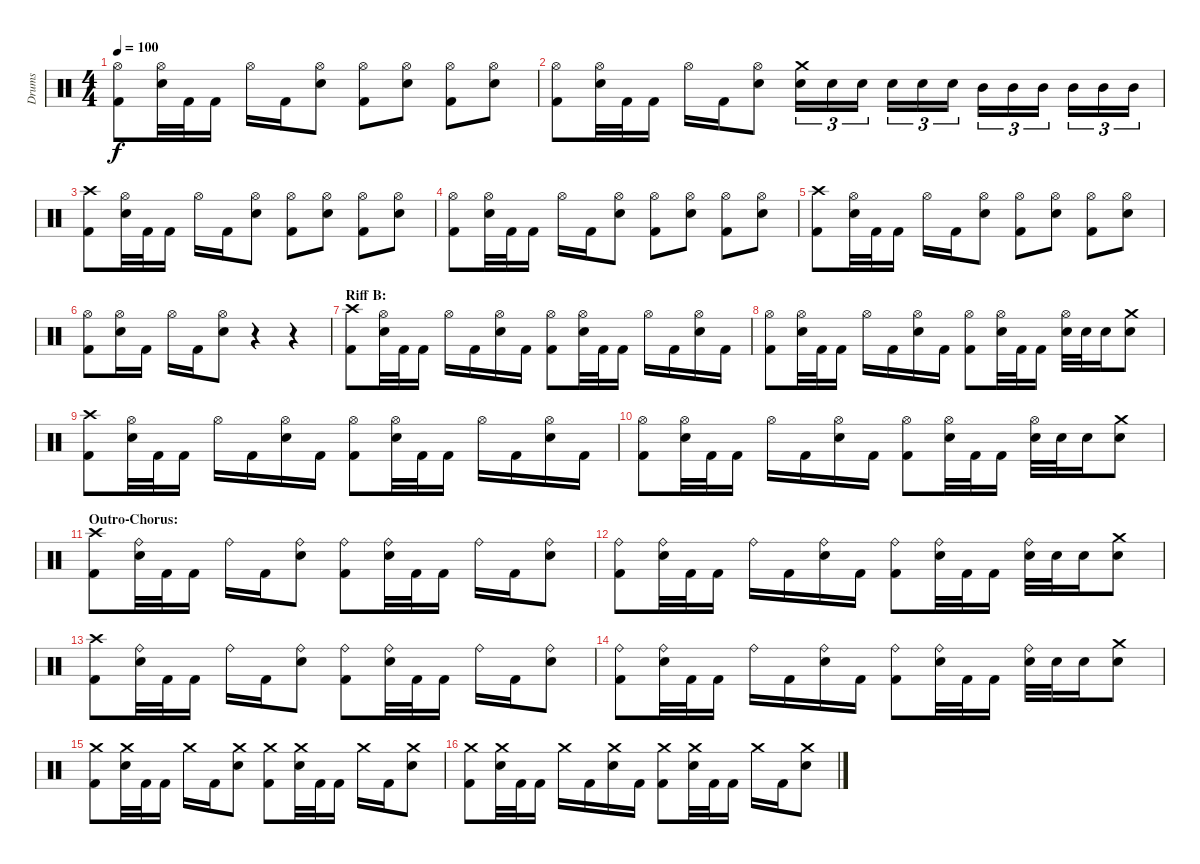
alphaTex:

\track ("Drums" "Drums") {instrument percussion}
\staff {score}
\articulation defaults
\ts (4 4)
\tempo 100
\clef neutral
\ks c
("Hi-Hat (open)" "Kick (hit) 2").8{dy f} ("Hi-Hat (open)" "Electric Snare (hit)").32 "Kick (hit) 2".32 "Kick (hit) 2".16 "Hi-Hat (open)".16 "Kick (hit) 2".16 ("Hi-Hat (open)" "Electric Snare (hit)").8 ("Hi-Hat (open)" "Kick (hit) 2").8 ("Hi-Hat (open)" "Electric Snare (hit)").8 ("Hi-Hat (open)" "Kick (hit) 2").8 ("Hi-Hat (open)" "Electric Snare (hit)").8 |
("Hi-Hat (open)" "Kick (hit) 2").8 ("Hi-Hat (open)" "Electric Snare (hit)").32 "Kick (hit) 2".32 "Kick (hit) 2".16 "Hi-Hat (open)".16 "Kick (hit) 2".16 ("Hi-Hat (open)" "Electric Snare (hit)").8 ("Crash medium (hit)" "Electric Snare (hit)").16{tu (3 2)} "Electric Snare (hit)".16{tu (3 2)} "Electric Snare (hit)".16{tu (3 2)} "Electric Snare (hit)".16{tu (3 2)} "Electric Snare (hit)".16{tu (3 2)} "Electric Snare (hit)".16{tu (3 2)} "Mid Tom (hit)".16{tu (3 2)} "Mid Tom (hit)".16{tu (3 2)} "Mid Tom (hit)".16{tu (3 2)} "Mid Tom (hit)".16{tu (3 2)} "Mid Tom (hit)".16{tu (3 2)} "Mid Tom (hit)".16{tu (3 2)} |
("Crash high (hit)" "Kick (hit) 2").8 ("Hi-Hat (open)" "Electric Snare (hit)").32 "Kick (hit) 2".32 "Kick (hit) 2".16 "Hi-Hat (open)".16 "Kick (hit) 2".16 ("Hi-Hat (open)" "Electric Snare (hit)").8 ("Hi-Hat (open)" "Kick (hit) 2").8 ("Hi-Hat (open)" "Electric Snare (hit)").8 ("Hi-Hat (open)" "Kick (hit) 2").8 ("Hi-Hat (open)" "Electric Snare (hit)").8 |
("Hi-Hat (open)" "Kick (hit) 2").8 ("Hi-Hat (open)" "Electric Snare (hit)").32 "Kick (hit) 2".32 "Kick (hit) 2".16 "Hi-Hat (open)".16 "Kick (hit) 2".16 ("Hi-Hat (open)" "Electric Snare (hit)").8 ("Hi-Hat (open)" "Kick (hit) 2").8 ("Hi-Hat (open)" "Electric Snare (hit)").8 ("Hi-Hat (open)" "Kick (hit) 2").8 ("Hi-Hat (open)" "Electric Snare (hit)").8 |
("Crash high (hit)" "Kick (hit) 2").8 ("Hi-Hat (open)" "Electric Snare (hit)").32 "Kick (hit) 2".32 "Kick (hit) 2".16 "Hi-Hat (open)".16 "Kick (hit) 2".16 ("Hi-Hat (open)" "Electric Snare (hit)").8 ("Hi-Hat (open)" "Kick (hit) 2").8 ("Hi-Hat (open)" "Electric Snare (hit)").8 ("Hi-Hat (open)" "Kick (hit) 2").8 ("Hi-Hat (open)" "Electric Snare (hit)").8 |
("Hi-Hat (open)" "Kick (hit) 2").8 ("Hi-Hat (open)" "Electric Snare (hit)").16 "Kick (hit) 2".16 "Hi-Hat (open)".16 "Kick (hit) 2".16 ("Hi-Hat (open)" "Electric Snare (hit)").8 r.4 r.4 |
\section ("" "Riff B:")
("Crash high (hit)" "Kick (hit) 2").8 ("Hi-Hat (open)" "Electric Snare (hit)").32 "Kick (hit) 2".32 "Kick (hit) 2".16 "Hi-Hat (open)".16 "Kick (hit) 2".16 ("Hi-Hat (open)" "Electric Snare (hit)").16 "Kick (hit) 2".16 ("Hi-Hat (open)" "Kick (hit) 2").8 ("Hi-Hat (open)" "Electric Snare (hit)").32 "Kick (hit) 2".32 "Kick (hit) 2".16 "Hi-Hat (open)".16 "Kick (hit) 2".16 ("Hi-Hat (open)" "Electric Snare (hit)").16 "Kick (hit) 2".16 |
("Hi-Hat (open)" "Kick (hit) 2").8 ("Hi-Hat (open)" "Electric Snare (hit)").32 "Kick (hit) 2".32 "Kick (hit) 2".16 "Hi-Hat (open)".16 "Kick (hit) 2".16 ("Hi-Hat (open)" "Electric Snare (hit)").16 "Kick (hit) 2".16 ("Hi-Hat (open)" "Kick (hit) 2").8 ("Hi-Hat (open)" "Electric Snare (hit)").32 "Kick (hit) 2".32 "Kick (hit) 2".16 ("Hi-Hat (open)" "Electric Snare (hit)").32 "Electric Snare (hit)".32 "Electric Snare (hit)".16 ("Crash medium (hit)" "Electric Snare (hit)").8 |
("Crash high (hit)" "Kick (hit) 2").8 ("Hi-Hat (open)" "Electric Snare (hit)").32 "Kick (hit) 2".32 "Kick (hit) 2".16 "Hi-Hat (open)".16 "Kick (hit) 2".16 ("Hi-Hat (open)" "Electric Snare (hit)").16 "Kick (hit) 2".16 ("Hi-Hat (open)" "Kick (hit) 2").8 ("Hi-Hat (open)" "Electric Snare (hit)").32 "Kick (hit) 2".32 "Kick (hit) 2".16 "Hi-Hat (open)".16 "Kick (hit) 2".16 ("Hi-Hat (open)" "Electric Snare (hit)").16 "Kick (hit) 2".16 |
("Hi-Hat (open)" "Kick (hit) 2").8 ("Hi-Hat (open)" "Electric Snare (hit)").32 "Kick (hit) 2".32 "Kick (hit) 2".16 "Hi-Hat (open)".16 "Kick (hit) 2".16 ("Hi-Hat (open)" "Electric Snare (hit)").16 "Kick (hit) 2".16 ("Hi-Hat (open)" "Kick (hit) 2").8 ("Hi-Hat (open)" "Electric Snare (hit)").32 "Kick (hit) 2".32 "Kick (hit) 2".16 ("Hi-Hat (open)" "Electric Snare (hit)").32 "Electric Snare (hit)".32 "Electric Snare (hit)".16 ("Crash medium (hit)" "Electric Snare (hit)").8 |
\section ("" "Outro-Chorus:")
("Crash high (hit)" "Kick (hit) 2").8 ("Ride (bell)" "Electric Snare (hit)").32 "Kick (hit) 2".32 "Kick (hit) 2".16 "Ride (bell)".16 "Kick (hit) 2".16 ("Ride (bell)" "Electric Snare (hit)").8 ("Ride (bell)" "Kick (hit) 2").8 ("Ride (bell)" "Electric Snare (hit)").32 "Kick (hit) 2".32 "Kick (hit) 2".16 "Ride (bell)".16 "Kick (hit) 2".16 ("Ride (bell)" "Electric Snare (hit)").8 |
("Ride (bell)" "Kick (hit) 2").8 ("Ride (bell)" "Electric Snare (hit)").32 "Kick (hit) 2".32 "Kick (hit) 2".16 "Ride (bell)".16 "Kick (hit) 2".16 ("Ride (bell)" "Electric Snare (hit)").16 "Kick (hit) 2".16 ("Ride (bell)" "Kick (hit) 2").8 ("Ride (bell)" "Electric Snare (hit)").32 "Kick (hit) 2".32 "Kick (hit) 2".16 ("Ride (bell)" "Electric Snare (hit)").32 "Electric Snare (hit)".32 "Electric Snare (hit)".16 ("Crash medium (hit)" "Electric Snare (hit)").8 |
("Crash high (hit)" "Kick (hit) 2").8 ("Ride (bell)" "Electric Snare (hit)").32 "Kick (hit) 2".32 "Kick (hit) 2".16 "Ride (bell)".16 "Kick (hit) 2".16 ("Ride (bell)" "Electric Snare (hit)").8 ("Ride (bell)" "Kick (hit) 2").8 ("Ride (bell)" "Electric Snare (hit)").32 "Kick (hit) 2".32 "Kick (hit) 2".16 "Ride (bell)".16 "Kick (hit) 2".16 ("Ride (bell)" "Electric Snare (hit)").8 |
("Ride (bell)" "Kick (hit) 2").8 ("Ride (bell)" "Electric Snare (hit)").32 "Kick (hit) 2".32 "Kick (hit) 2".16 "Ride (bell)".16 "Kick (hit) 2".16 ("Ride (bell)" "Electric Snare (hit)").16 "Kick (hit) 2".16 ("Ride (bell)" "Kick (hit) 2").8 ("Ride (bell)" "Electric Snare (hit)").32 "Kick (hit) 2".32 "Kick (hit) 2".16 ("Ride (bell)" "Electric Snare (hit)").32 "Electric Snare (hit)".32 "Electric Snare (hit)".16 ("Crash medium (hit)" "Electric Snare (hit)").8 |
("Crash medium (hit)" "Kick (hit) 2").8 ("Crash medium (hit)" "Electric Snare (hit)").32 "Kick (hit) 2".32 "Kick (hit) 2".16 "Crash medium (hit)".16 "Kick (hit) 2".16 ("Crash medium (hit)" "Electric Snare (hit)").8 ("Crash medium (hit)" "Kick (hit) 2").8 ("Crash medium (hit)" "Electric Snare (hit)").32 "Kick (hit) 2".32 "Kick (hit) 2".16 "Crash medium (hit)".16 "Kick (hit) 2".16 ("Crash medium (hit)" "Electric Snare (hit)").8 |
("Crash medium (hit)" "Kick (hit) 2").8 ("Crash medium (hit)" "Electric Snare (hit)").32 "Kick (hit) 2".32 "Kick (hit) 2".16 "Crash medium (hit)".16 "Kick (hit) 2".16 ("Crash medium (hit)" "Electric Snare (hit)").16 "Kick (hit) 2".16 ("Crash medium (hit)" "Kick (hit) 2").8 ("Crash medium (hit)" "Electric Snare (hit)").32 "Kick (hit) 2".32 "Kick (hit) 2".16 "Crash medium (hit)".16 "Kick (hit) 2".16 ("Crash medium (hit)" "Electric Snare (hit)").8
